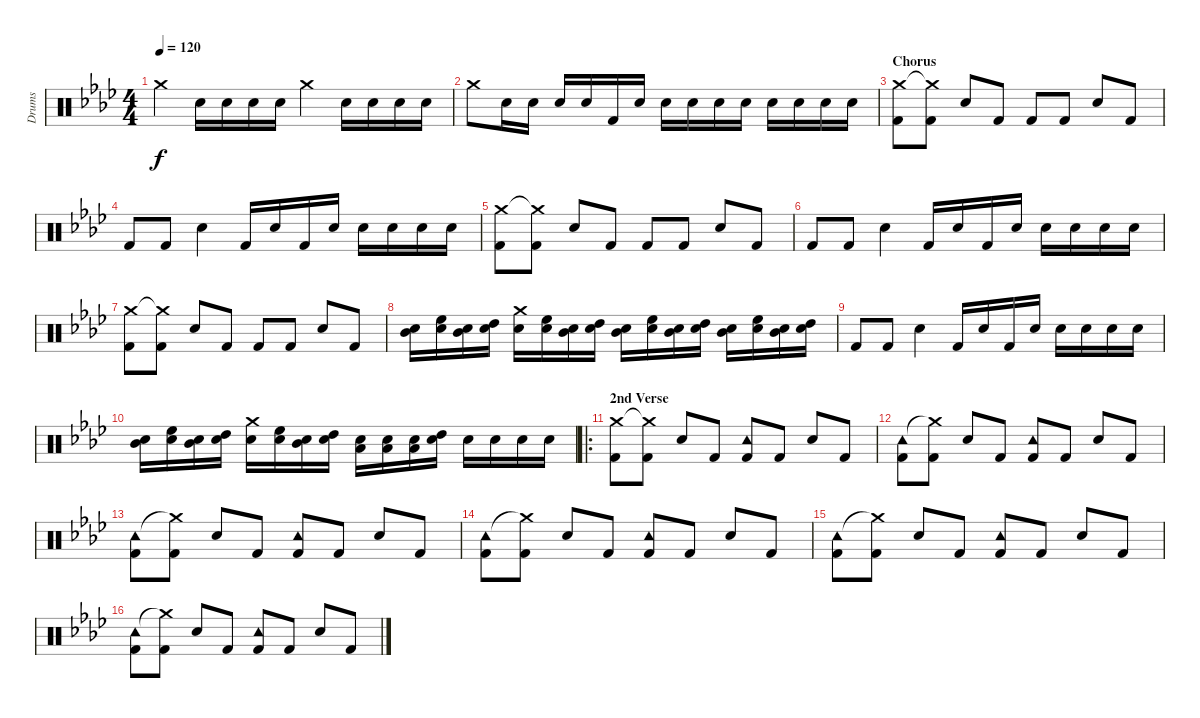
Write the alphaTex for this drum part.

\track ("Drums" "Drums") {instrument percussion}
\staff {score}
\articulation defaults
\ts (4 4)
\tempo 120
\clef neutral
\ks ab "Crash medium (hit)".4{dy f} "Electric Snare (hit)".16 "Electric Snare (hit)".16 "Electric Snare (hit)".16 "Electric Snare (hit)".16 "Crash medium (hit)".4 "Electric Snare (hit)".16 "Electric Snare (hit)".16 "Electric Snare (hit)".16 "Electric Snare (hit)".16
|
"Crash medium (hit)".8 "Electric Snare (hit)".16 "Electric Snare (hit)".16 "Electric Snare (hit)".16 "Electric Snare (hit)".16 "Kick (hit) 2".16 "Electric Snare (hit)".16 "Electric Snare (hit)".16 "Electric Snare (hit)".16 "Electric Snare (hit)".16 "Electric Snare (hit)".16 "Electric Snare (hit)".16 "Electric Snare (hit)".16 "Electric Snare (hit)".16 "Electric Snare (hit)".16 |
\section ("" "Chorus")
("Crash medium (hit)" "Kick (hit) 2").8 ("Crash medium (hit)"{t} "Kick (hit) 2").8 "Snare (hit) 2".8 "Kick (hit) 2".8 "Kick (hit) 2".8 "Kick (hit) 2".8 "Snare (hit) 2".8 "Kick (hit) 2".8 |
"Kick (hit) 2".8 "Kick (hit) 2".8 "Snare (hit) 2".4 "Kick (hit) 2".16 "Electric Snare (hit)".16 "Kick (hit) 2".16 "Electric Snare (hit)".16 "Electric Snare (hit)".16 "Electric Snare (hit)".16 "Electric Snare (hit)".16 "Electric Snare (hit)".16 |
("Crash medium (hit)" "Kick (hit) 2").8 ("Crash medium (hit)"{t} "Kick (hit) 2").8 "Snare (hit) 2".8 "Kick (hit) 2".8 "Kick (hit) 2".8 "Kick (hit) 2".8 "Snare (hit) 2".8 "Kick (hit) 2".8 |
"Kick (hit) 2".8 "Kick (hit) 2".8 "Snare (hit) 2".4 "Kick (hit) 2".16 "Electric Snare (hit)".16 "Kick (hit) 2".16 "Electric Snare (hit)".16 "Electric Snare (hit)".16 "Electric Snare (hit)".16 "Electric Snare (hit)".16 "Electric Snare (hit)".16 |
("Crash medium (hit)" "Kick (hit) 2").8 ("Crash medium (hit)"{t} "Kick (hit) 2").8 "Snare (hit) 2".8 "Kick (hit) 2".8 "Kick (hit) 2".8 "Kick (hit) 2".8 "Snare (hit) 2".8 "Kick (hit) 2".8 |
("Snare (hit) 2" "Mid Tom (hit)").16 ("Electric Snare (hit)" "High Floor Tom (hit)").16 ("Snare (hit) 2" "Mid Tom (hit)").16 ("Electric Snare (hit)" "High Tom (hit)").16 ("Snare (hit) 2" "Crash medium (hit)").16 ("Electric Snare (hit)" "High Floor Tom (hit)").16 ("Snare (hit) 2" "Mid Tom (hit)").16 ("Electric Snare (hit)" "High Tom (hit)").16 ("Snare (hit) 2" "Mid Tom (hit)").16 ("Electric Snare (hit)" "High Floor Tom (hit)").16 ("Snare (hit) 2" "Mid Tom (hit)").16 ("Electric Snare (hit)" "High Tom (hit)").16 ("Snare (hit) 2" "Mid Tom (hit)").16 ("Electric Snare (hit)" "High Floor Tom (hit)").16 ("Snare (hit) 2" "Mid Tom (hit)").16 ("Electric Snare (hit)" "High Tom (hit)").16 |
"Kick (hit) 2".8 "Kick (hit) 2".8 "Snare (hit) 2".4 "Kick (hit) 2".16 "Electric Snare (hit)".16 "Kick (hit) 2".16 "Electric Snare (hit)".16 "Electric Snare (hit)".16 "Electric Snare (hit)".16 "Electric Snare (hit)".16 "Electric Snare (hit)".16 |
("Snare (hit) 2" "Mid Tom (hit)").16 ("Electric Snare (hit)" "High Floor Tom (hit)").16 ("Snare (hit) 2" "Mid Tom (hit)").16 ("Electric Snare (hit)" "High Tom (hit)").16 ("Snare (hit) 2" "Crash medium (hit)").16 ("Electric Snare (hit)" "High Floor Tom (hit)").16 ("Snare (hit) 2" "Mid Tom (hit)").16 ("Electric Snare (hit)" "High Tom (hit)").16 ("Electric Snare (hit)" "Low Tom (hit)").16 ("Electric Snare (hit)" "Low Floor Tom (hit)").16 ("Electric Snare (hit)" "Low Tom (hit)").16 ("Electric Snare (hit)" "High Tom (hit)").16 "Electric Snare (hit)".16 "Electric Snare (hit)".16 "Electric Snare (hit)".16 "Electric Snare (hit)".16 |
\ro
\section ("" "2nd Verse")
("Crash medium (hit)" "Kick (hit) 2").8 ("Crash medium (hit)"{t} "Kick (hit) 2").8 "Snare (hit) 2".8 "Kick (hit) 2".8 ("Tambourine (hit)" "Kick (hit) 2").8 "Kick (hit) 2".8 "Snare (hit) 2".8 "Kick (hit) 2".8 |
("Tambourine (hit)" "Kick (hit) 2").8 ("Crash medium (hit)"{t} "Kick (hit) 2").8 "Snare (hit) 2".8 "Kick (hit) 2".8 ("Tambourine (hit)" "Kick (hit) 2").8 "Kick (hit) 2".8 "Snare (hit) 2".8 "Kick (hit) 2".8 |
("Tambourine (hit)" "Kick (hit) 2").8 ("Crash medium (hit)"{t} "Kick (hit) 2").8 "Snare (hit) 2".8 "Kick (hit) 2".8 ("Tambourine (hit)" "Kick (hit) 2").8 "Kick (hit) 2".8 "Snare (hit) 2".8 "Kick (hit) 2".8 |
("Tambourine (hit)" "Kick (hit) 2").8 ("Crash medium (hit)"{t} "Kick (hit) 2").8 "Snare (hit) 2".8 "Kick (hit) 2".8 ("Tambourine (hit)" "Kick (hit) 2").8 "Kick (hit) 2".8 "Snare (hit) 2".8 "Kick (hit) 2".8 |
("Tambourine (hit)" "Kick (hit) 2").8 ("Crash medium (hit)"{t} "Kick (hit) 2").8 "Snare (hit) 2".8 "Kick (hit) 2".8 ("Tambourine (hit)" "Kick (hit) 2").8 "Kick (hit) 2".8 "Snare (hit) 2".8 "Kick (hit) 2".8 |
("Tambourine (hit)" "Kick (hit) 2").8 ("Crash medium (hit)"{t} "Kick (hit) 2").8 "Snare (hit) 2".8 "Kick (hit) 2".8 ("Tambourine (hit)" "Kick (hit) 2").8 "Kick (hit) 2".8 "Snare (hit) 2".8 "Kick (hit) 2".8
